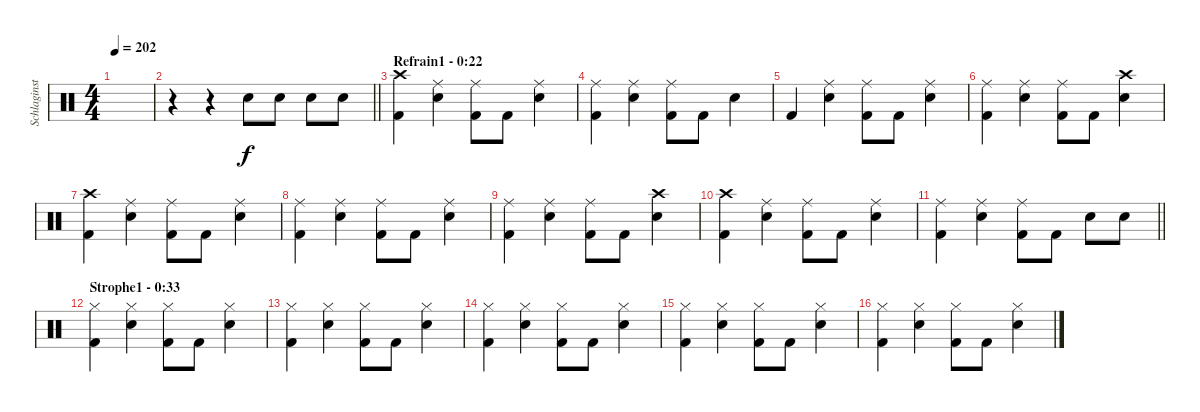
\track ("Schlaginstrumente - Auswahl" "Schlaginst") {instrument percussion bank 1}
\staff {score}
\articulation defaults
\ts (4 4)
\tempo 202
\clef neutral
\ks c
|
\barLineRight lightlight
r.4 r.4 "Snare (hit) 2".8 "Snare (hit) 2".8 "Snare (hit) 2".8 "Snare (hit) 2".8 |
\section ("" "Refrain1 - 0:22")
("Crash high (hit)" "Kick (hit) 2").4 ("Ride (middle)" "Snare (hit) 2").4 ("Ride (middle)" "Kick (hit) 2").8 "Kick (hit) 2".8 ("Ride (middle)" "Snare (hit) 2").4 |
("Ride (middle)" "Kick (hit) 2").4 ("Ride (middle)" "Snare (hit) 2").4 ("Ride (middle)" "Kick (hit) 2").8 "Kick (hit) 2".8 "Snare (hit) 2".4 |
"Kick (hit) 2".4 ("Ride (middle)" "Snare (hit) 2").4 ("Ride (middle)" "Kick (hit) 2").8 "Kick (hit) 2".8 ("Ride (middle)" "Snare (hit) 2").4 |
("Ride (middle)" "Kick (hit) 2").4 ("Ride (middle)" "Snare (hit) 2").4 ("Ride (middle)" "Kick (hit) 2").8 "Kick (hit) 2".8 ("Crash high (hit)" "Snare (hit) 2").4 |
("Crash high (hit)" "Kick (hit) 2").4 ("Ride (middle)" "Snare (hit) 2").4 ("Ride (middle)" "Kick (hit) 2").8 "Kick (hit) 2".8 ("Ride (middle)" "Snare (hit) 2").4 |
("Ride (middle)" "Kick (hit) 2").4 ("Ride (middle)" "Snare (hit) 2").4 ("Ride (middle)" "Kick (hit) 2").8 "Kick (hit) 2".8 ("Ride (middle)" "Snare (hit) 2").4 |
("Ride (middle)" "Kick (hit) 2").4 ("Ride (middle)" "Snare (hit) 2").4 ("Ride (middle)" "Kick (hit) 2").8 "Kick (hit) 2".8 ("Crash high (hit)" "Snare (hit) 2").4 |
("Crash high (hit)" "Kick (hit) 2").4 ("Ride (middle)" "Snare (hit) 2").4 ("Ride (middle)" "Kick (hit) 2").8 "Kick (hit) 2".8 ("Ride (middle)" "Snare (hit) 2").4 |
\barLineRight lightlight
("Ride (middle)" "Kick (hit) 2").4 ("Ride (middle)" "Snare (hit) 2").4 ("Ride (middle)" "Kick (hit) 2").8 "Kick (hit) 2".8 "Snare (hit) 2".8 "Snare (hit) 2".8 |
\section ("" "Strophe1 - 0:33")
("Hi-Hat (closed)" "Kick (hit) 2").4 ("Hi-Hat (closed)" "Snare (hit) 2").4 ("Hi-Hat (closed)" "Kick (hit) 2").8 "Kick (hit) 2".8 ("Hi-Hat (closed)" "Snare (hit) 2").4 |
("Hi-Hat (closed)" "Kick (hit) 2").4 ("Hi-Hat (closed)" "Snare (hit) 2").4 ("Hi-Hat (closed)" "Kick (hit) 2").8 "Kick (hit) 2".8 ("Hi-Hat (closed)" "Snare (hit) 2").4 |
("Hi-Hat (closed)" "Kick (hit) 2").4 ("Hi-Hat (closed)" "Snare (hit) 2").4 ("Hi-Hat (closed)" "Kick (hit) 2").8 "Kick (hit) 2".8 ("Hi-Hat (closed)" "Snare (hit) 2").4 |
("Hi-Hat (closed)" "Kick (hit) 2").4 ("Hi-Hat (closed)" "Snare (hit) 2").4 ("Hi-Hat (closed)" "Kick (hit) 2").8 "Kick (hit) 2".8 ("Hi-Hat (closed)" "Snare (hit) 2").4 |
("Hi-Hat (closed)" "Kick (hit) 2").4 ("Hi-Hat (closed)" "Snare (hit) 2").4 ("Hi-Hat (closed)" "Kick (hit) 2").8 "Kick (hit) 2".8 ("Hi-Hat (closed)" "Snare (hit) 2").4
